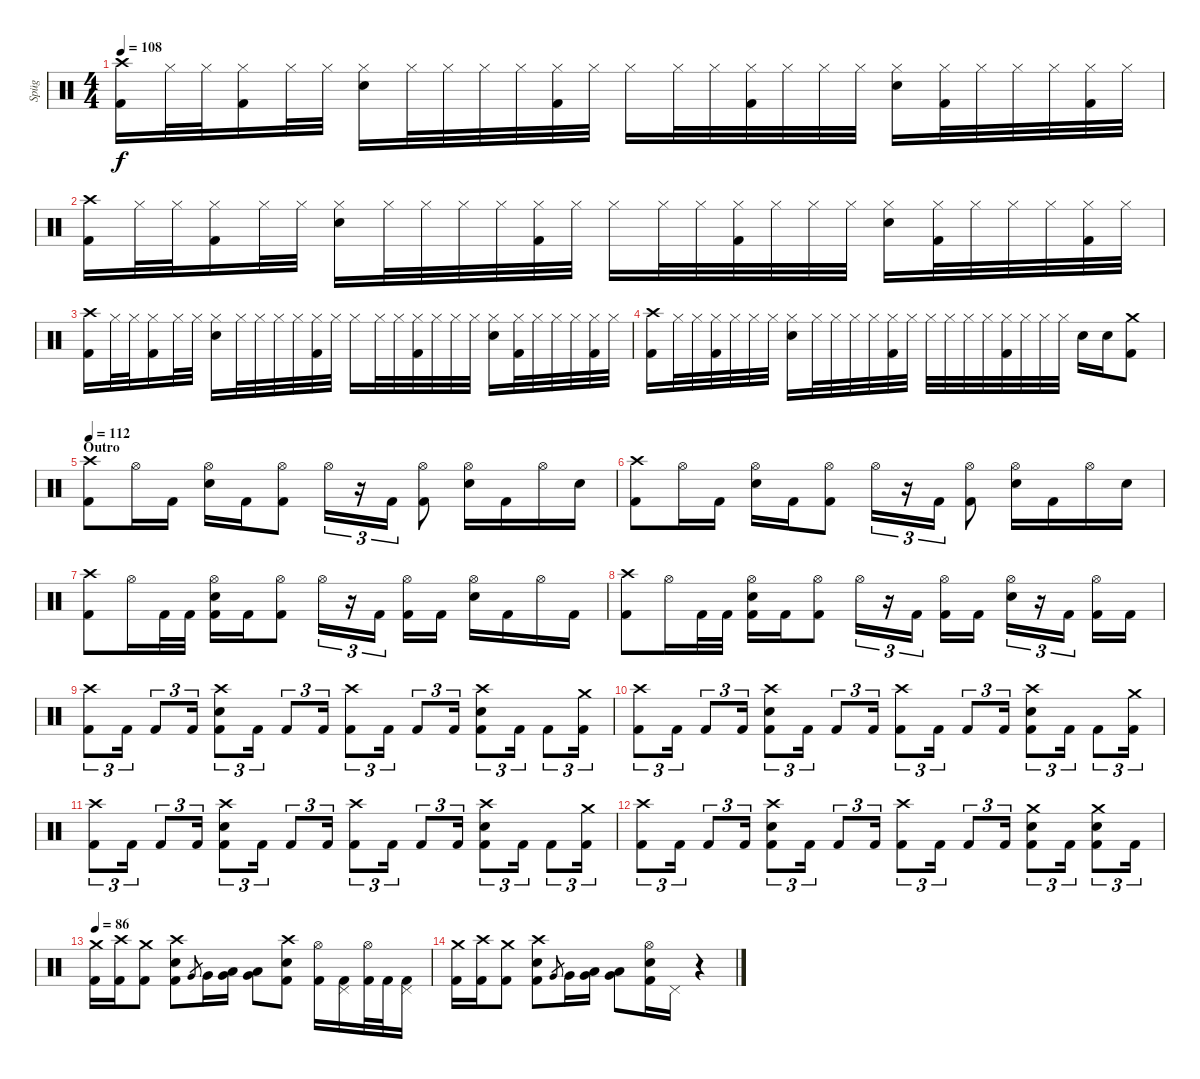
\track ("Spüg" "Spüg") {instrument percussion}
\staff {score}
\articulation defaults
\ts (4 4)
\tempo 108
\clef neutral
\ks c
("Crash high (hit)" "Kick (hit) 2").16{dy f} "Hi-Hat (closed)".32 "Hi-Hat (closed)".32 ("Hi-Hat (closed)" "Kick (hit) 2").16 "Hi-Hat (closed)".32 "Hi-Hat (closed)".32 ("Hi-Hat (closed)" "Electric Snare (hit)").16 "Hi-Hat (closed)".32 "Hi-Hat (closed)".32 "Hi-Hat (closed)".32 "Hi-Hat (closed)".32 ("Hi-Hat (closed)" "Kick (hit) 2").32 "Hi-Hat (closed)".32 "Hi-Hat (closed)".16 "Hi-Hat (closed)".32 "Hi-Hat (closed)".32 ("Hi-Hat (closed)" "Kick (hit) 2").32 "Hi-Hat (closed)".32 "Hi-Hat (closed)".32 "Hi-Hat (closed)".32 ("Hi-Hat (closed)" "Electric Snare (hit)").16 ("Hi-Hat (closed)" "Kick (hit) 2").32 "Hi-Hat (closed)".32 "Hi-Hat (closed)".32 "Hi-Hat (closed)".32 ("Hi-Hat (closed)" "Kick (hit) 2").32 "Hi-Hat (closed)".32 |
("Crash high (hit)" "Kick (hit) 2").16 "Hi-Hat (closed)".32 "Hi-Hat (closed)".32 ("Hi-Hat (closed)" "Kick (hit) 2").16 "Hi-Hat (closed)".32 "Hi-Hat (closed)".32 ("Hi-Hat (closed)" "Electric Snare (hit)").16 "Hi-Hat (closed)".32 "Hi-Hat (closed)".32 "Hi-Hat (closed)".32 "Hi-Hat (closed)".32 ("Hi-Hat (closed)" "Kick (hit) 2").32 "Hi-Hat (closed)".32 "Hi-Hat (closed)".16 "Hi-Hat (closed)".32 "Hi-Hat (closed)".32 ("Hi-Hat (closed)" "Kick (hit) 2").32 "Hi-Hat (closed)".32 "Hi-Hat (closed)".32 "Hi-Hat (closed)".32 ("Hi-Hat (closed)" "Electric Snare (hit)").16 ("Hi-Hat (closed)" "Kick (hit) 2").32 "Hi-Hat (closed)".32 "Hi-Hat (closed)".32 "Hi-Hat (closed)".32 ("Hi-Hat (closed)" "Kick (hit) 2").32 "Hi-Hat (closed)".32 |
("Crash high (hit)" "Kick (hit) 2").16 "Hi-Hat (closed)".32 "Hi-Hat (closed)".32 ("Hi-Hat (closed)" "Kick (hit) 2").16 "Hi-Hat (closed)".32 "Hi-Hat (closed)".32 ("Hi-Hat (closed)" "Electric Snare (hit)").16 "Hi-Hat (closed)".32 "Hi-Hat (closed)".32 "Hi-Hat (closed)".32 "Hi-Hat (closed)".32 ("Hi-Hat (closed)" "Kick (hit) 2").32 "Hi-Hat (closed)".32 "Hi-Hat (closed)".16 "Hi-Hat (closed)".32 "Hi-Hat (closed)".32 ("Hi-Hat (closed)" "Kick (hit) 2").32 "Hi-Hat (closed)".32 "Hi-Hat (closed)".32 "Hi-Hat (closed)".32 ("Hi-Hat (closed)" "Electric Snare (hit)").16 ("Hi-Hat (closed)" "Kick (hit) 2").32 "Hi-Hat (closed)".32 "Hi-Hat (closed)".32 "Hi-Hat (closed)".32 ("Hi-Hat (closed)" "Kick (hit) 2").32 "Hi-Hat (closed)".32 |
("Crash high (hit)" "Kick (hit) 2").16 "Hi-Hat (closed)".32 "Hi-Hat (closed)".32 ("Hi-Hat (closed)" "Kick (hit) 2").32 "Hi-Hat (closed)".32 "Hi-Hat (closed)".32 "Hi-Hat (closed)".32 ("Hi-Hat (closed)" "Electric Snare (hit)").16 "Hi-Hat (closed)".32 "Hi-Hat (closed)".32 "Hi-Hat (closed)".32 "Hi-Hat (closed)".32 ("Hi-Hat (closed)" "Kick (hit) 2").32 "Hi-Hat (closed)".32 "Hi-Hat (closed)".32 "Hi-Hat (closed)".32 "Hi-Hat (closed)".32 "Hi-Hat (closed)".32 ("Hi-Hat (closed)" "Kick (hit) 2").32 "Hi-Hat (closed)".32 "Hi-Hat (closed)".32 "Hi-Hat (closed)".32 "Electric Snare (hit)".16 "Electric Snare (hit)".16 ("Crash medium (hit)" "Kick (hit) 2").8 |
\section ("" "Outro")
\tempo 112
("Crash high (hit)" "Kick (hit) 2").8 "Hi-Hat (open)".16 "Kick (hit) 2".16 ("Hi-Hat (open)" "Electric Snare (hit)").16 "Kick (hit) 2".16 ("Hi-Hat (open)" "Kick (hit) 2").8 "Hi-Hat (open)".16{tu (3 2)} r.16{tu (3 2)} "Kick (hit) 2".16{tu (3 2)} ("Hi-Hat (open)" "Kick (hit) 2").8 ("Hi-Hat (open)" "Electric Snare (hit)").16 "Kick (hit) 2".16 "Hi-Hat (open)".16 "Electric Snare (hit)".16 |
("Crash high (hit)" "Kick (hit) 2").8 "Hi-Hat (open)".16 "Kick (hit) 2".16 ("Hi-Hat (open)" "Electric Snare (hit)").16 "Kick (hit) 2".16 ("Hi-Hat (open)" "Kick (hit) 2").8 "Hi-Hat (open)".16{tu (3 2)} r.16{tu (3 2)} "Kick (hit) 2".16{tu (3 2)} ("Hi-Hat (open)" "Kick (hit) 2").8 ("Hi-Hat (open)" "Electric Snare (hit)").16 "Kick (hit) 2".16 "Hi-Hat (open)".16 "Electric Snare (hit)".16 |
("Crash high (hit)" "Kick (hit) 2").8 "Hi-Hat (open)".16 "Kick (hit) 2".32 "Kick (hit) 2".32 ("Hi-Hat (open)" "Electric Snare (hit)" "Kick (hit) 2").16 "Kick (hit) 2".16 ("Hi-Hat (open)" "Kick (hit) 2").8 "Hi-Hat (open)".16{tu (3 2)} r.16{tu (3 2)} "Kick (hit) 2".16{tu (3 2)} ("Hi-Hat (open)" "Kick (hit) 2").16 "Kick (hit) 2".16 ("Hi-Hat (open)" "Electric Snare (hit)").16 "Kick (hit) 2".16 "Hi-Hat (open)".16 "Kick (hit) 2".16 |
("Crash high (hit)" "Kick (hit) 2").8 "Hi-Hat (open)".16 "Kick (hit) 2".32 "Kick (hit) 2".32 ("Hi-Hat (open)" "Electric Snare (hit)" "Kick (hit) 2").16 "Kick (hit) 2".16 ("Hi-Hat (open)" "Kick (hit) 2").8 "Hi-Hat (open)".16{tu (3 2)} r.16{tu (3 2)} "Kick (hit) 2".16{tu (3 2)} ("Hi-Hat (open)" "Kick (hit) 2").16 "Kick (hit) 2".16 ("Hi-Hat (open)" "Electric Snare (hit)").16{tu (3 2)} r.16{tu (3 2)} "Kick (hit) 2".16{tu (3 2)} ("Hi-Hat (open)" "Kick (hit) 2").16 "Kick (hit) 2".16 |
("Crash high (hit)" "Kick (hit) 2").8{tu (3 2)} "Kick (hit) 2".16{tu (3 2)} "Kick (hit) 2".8{tu (3 2)} "Kick (hit) 2".16{tu (3 2)} ("Crash high (hit)" "Electric Snare (hit)" "Kick (hit) 2").8{tu (3 2)} "Kick (hit) 2".16{tu (3 2)} "Kick (hit) 2".8{tu (3 2)} "Kick (hit) 2".16{tu (3 2)} ("Crash high (hit)" "Kick (hit) 2").8{tu (3 2)} "Kick (hit) 2".16{tu (3 2)} "Kick (hit) 2".8{tu (3 2)} "Kick (hit) 2".16{tu (3 2)} ("Crash high (hit)" "Electric Snare (hit)" "Kick (hit) 2").8{tu (3 2)} "Kick (hit) 2".16{tu (3 2)} "Kick (hit) 2".8{tu (3 2)} ("Crash medium (hit)" "Kick (hit) 2").16{tu (3 2)} |
("Crash high (hit)" "Kick (hit) 2").8{tu (3 2)} "Kick (hit) 2".16{tu (3 2)} "Kick (hit) 2".8{tu (3 2)} "Kick (hit) 2".16{tu (3 2)} ("Crash high (hit)" "Electric Snare (hit)" "Kick (hit) 2").8{tu (3 2)} "Kick (hit) 2".16{tu (3 2)} "Kick (hit) 2".8{tu (3 2)} "Kick (hit) 2".16{tu (3 2)} ("Crash high (hit)" "Kick (hit) 2").8{tu (3 2)} "Kick (hit) 2".16{tu (3 2)} "Kick (hit) 2".8{tu (3 2)} "Kick (hit) 2".16{tu (3 2)} ("Crash high (hit)" "Electric Snare (hit)" "Kick (hit) 2").8{tu (3 2)} "Kick (hit) 2".16{tu (3 2)} "Kick (hit) 2".8{tu (3 2)} ("Crash medium (hit)" "Kick (hit) 2").16{tu (3 2)} |
("Crash high (hit)" "Kick (hit) 2").8{tu (3 2)} "Kick (hit) 2".16{tu (3 2)} "Kick (hit) 2".8{tu (3 2)} "Kick (hit) 2".16{tu (3 2)} ("Crash high (hit)" "Electric Snare (hit)" "Kick (hit) 2").8{tu (3 2)} "Kick (hit) 2".16{tu (3 2)} "Kick (hit) 2".8{tu (3 2)} "Kick (hit) 2".16{tu (3 2)} ("Crash high (hit)" "Kick (hit) 2").8{tu (3 2)} "Kick (hit) 2".16{tu (3 2)} "Kick (hit) 2".8{tu (3 2)} "Kick (hit) 2".16{tu (3 2)} ("Crash high (hit)" "Electric Snare (hit)" "Kick (hit) 2").8{tu (3 2)} "Kick (hit) 2".16{tu (3 2)} "Kick (hit) 2".8{tu (3 2)} ("Crash medium (hit)" "Kick (hit) 2").16{tu (3 2)} |
("Crash high (hit)" "Kick (hit) 2").8{tu (3 2)} "Kick (hit) 2".16{tu (3 2)} "Kick (hit) 2".8{tu (3 2)} "Kick (hit) 2".16{tu (3 2)} ("Crash high (hit)" "Electric Snare (hit)" "Kick (hit) 2").8{tu (3 2)} "Kick (hit) 2".16{tu (3 2)} "Kick (hit) 2".8{tu (3 2)} "Kick (hit) 2".16{tu (3 2)} ("Crash high (hit)" "Kick (hit) 2").8{tu (3 2)} "Kick (hit) 2".16{tu (3 2)} "Kick (hit) 2".8{tu (3 2)} "Kick (hit) 2".16{tu (3 2)} ("Crash medium (hit)" "Electric Snare (hit)" "Kick (hit) 2").8{tu (3 2)} "Kick (hit) 2".16{tu (3 2)} ("Crash medium (hit)" "Electric Snare (hit)" "Kick (hit) 2").8{tu (3 2)} "Kick (hit) 2".16{tu (3 2)} |
\tempo 86
("Crash medium (hit)" "Kick (hit) 2").16 ("Crash high (hit)" "Kick (hit) 2").16 ("Crash medium (hit)" "Kick (hit) 2").8 ("Crash high (hit)" "Electric Snare (hit)" "Kick (hit) 2").8 "Very Low Tom (hit)".8{gr} "Very Low Tom (hit)".16 ("Very Low Tom (hit)" "Low Floor Tom (hit)").16 ("Very Low Tom (hit)" "Low Floor Tom (hit)").8 ("Crash high (hit)" "Electric Snare (hit)" "Kick (hit) 2").8 ("Hi-Hat (open)" "Kick (hit) 2").16 ("Pedal Hi-Hat (hit)" "Kick (hit) 2").16 ("Hi-Hat (open)" "Kick (hit) 2").32 "Kick (hit) 2".32 ("Pedal Hi-Hat (hit)" "Kick (hit) 2").16 |
("Crash medium (hit)" "Kick (hit) 2").16 ("Crash high (hit)" "Kick (hit) 2").16 ("Crash medium (hit)" "Kick (hit) 2").8 ("Crash high (hit)" "Electric Snare (hit)" "Kick (hit) 2").8 "Very Low Tom (hit)".8{gr} "Very Low Tom (hit)".16 ("Very Low Tom (hit)" "Low Floor Tom (hit)").16 ("Very Low Tom (hit)" "Low Floor Tom (hit)").8 ("Hi-Hat (open)" "Electric Snare (hit)" "Kick (hit) 2").16 "Pedal Hi-Hat (hit)".16 r.4
